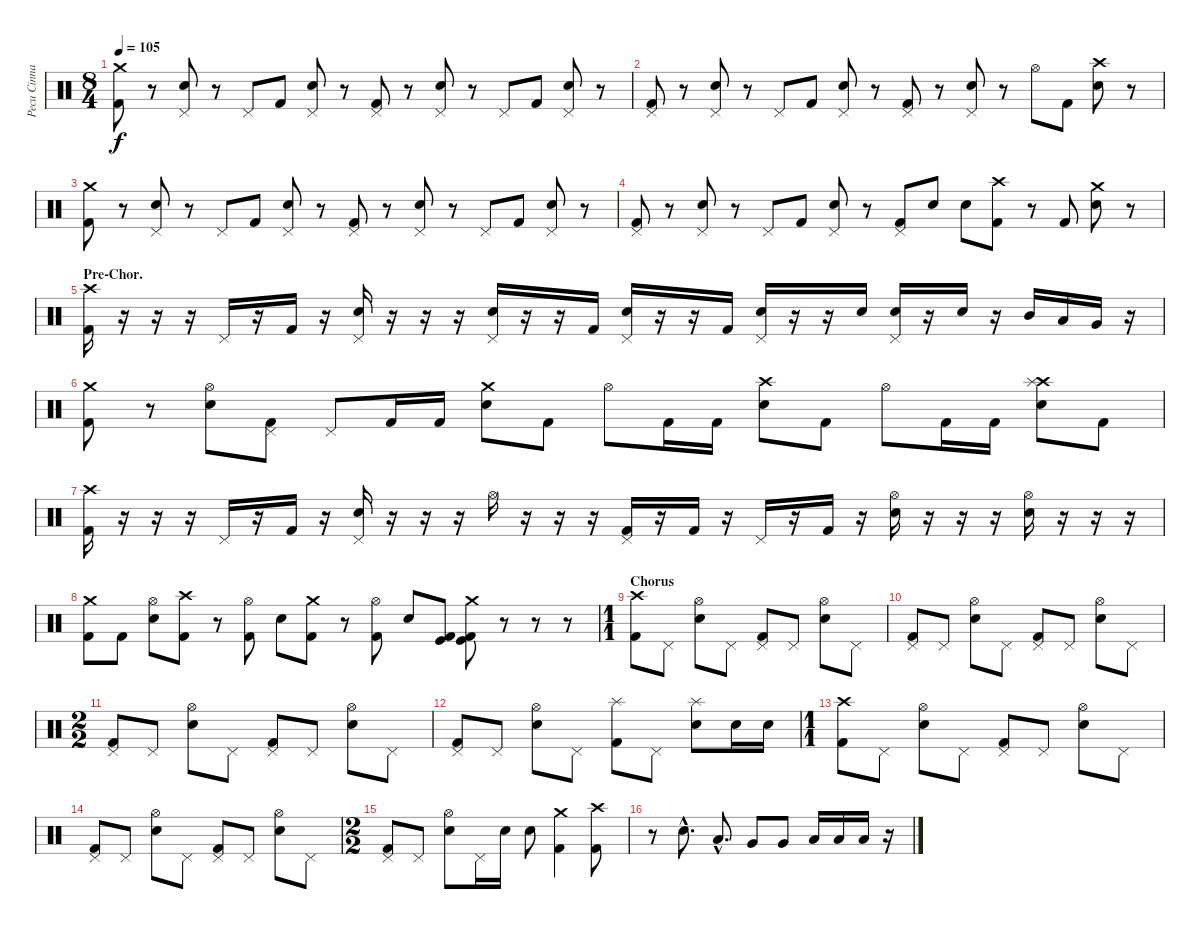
\track ("Pecu Cinnari" "Pecu Cinna") {instrument percussion}
\staff {score}
\articulation defaults
\ts (8 4)
\tempo 105
\clef neutral
\ks c
("Crash medium (hit)" "Kick (hit) 2").8{dy f} r.8 ("Pedal Hi-Hat (hit)" "Electric Snare (hit)").8 r.8 "Pedal Hi-Hat (hit)".8 "Kick (hit) 2".8 ("Pedal Hi-Hat (hit)" "Electric Snare (hit)").8 r.8 ("Pedal Hi-Hat (hit)" "Kick (hit) 2").8 r.8 ("Pedal Hi-Hat (hit)" "Electric Snare (hit)").8 r.8 "Pedal Hi-Hat (hit)".8 "Kick (hit) 2".8 ("Pedal Hi-Hat (hit)" "Electric Snare (hit)").8 r.8 |
("Pedal Hi-Hat (hit)" "Kick (hit) 2").8 r.8 ("Pedal Hi-Hat (hit)" "Electric Snare (hit)").8 r.8 "Pedal Hi-Hat (hit)".8 "Kick (hit) 2".8 ("Pedal Hi-Hat (hit)" "Electric Snare (hit)").8 r.8 ("Pedal Hi-Hat (hit)" "Kick (hit) 2").8 r.8 ("Pedal Hi-Hat (hit)" "Electric Snare (hit)").8 r.8 "Hi-Hat (open)".8 "Kick (hit) 2".8 ("Crash high (hit)" "Electric Snare (hit)").8 r.8 |
("Crash medium (hit)" "Kick (hit) 2").8 r.8 ("Pedal Hi-Hat (hit)" "Electric Snare (hit)").8 r.8 "Pedal Hi-Hat (hit)".8 "Kick (hit) 2".8 ("Pedal Hi-Hat (hit)" "Electric Snare (hit)").8 r.8 ("Pedal Hi-Hat (hit)" "Kick (hit) 2").8 r.8 ("Pedal Hi-Hat (hit)" "Electric Snare (hit)").8 r.8 "Pedal Hi-Hat (hit)".8 "Kick (hit) 2".8 ("Pedal Hi-Hat (hit)" "Electric Snare (hit)").8 r.8 |
("Pedal Hi-Hat (hit)" "Kick (hit) 2").8 r.8 ("Pedal Hi-Hat (hit)" "Electric Snare (hit)").8 r.8 "Pedal Hi-Hat (hit)".8 "Kick (hit) 2".8 ("Pedal Hi-Hat (hit)" "Electric Snare (hit)").8 r.8 ("Pedal Hi-Hat (hit)" "Kick (hit) 2").8 "Electric Snare (hit)".8 "Electric Snare (hit)".8 ("Crash high (hit)" "Kick (hit) 2").8 r.8 "Kick (hit) 2".8 ("Crash medium (hit)" "Electric Snare (hit)").8 r.8 |
\section ("" "Pre-Chor.")
("Crash high (hit)" "Kick (hit) 2").16 r.16 r.16 r.16 "Pedal Hi-Hat (hit)".16 r.16 "Kick (hit) 2".16 r.16 ("Pedal Hi-Hat (hit)" "Electric Snare (hit)").16 r.16 r.16 r.16 ("Pedal Hi-Hat (hit)" "Electric Snare (hit)").16 r.16 r.16 "Kick (hit) 2".16 ("Pedal Hi-Hat (hit)" "Electric Snare (hit)").16 r.16 r.16 "Kick (hit) 2".16 ("Pedal Hi-Hat (hit)" "Electric Snare (hit)").16 r.16 r.16 "Electric Snare (hit)".16 ("Pedal Hi-Hat (hit)" "Electric Snare (hit)").16 r.16 "Electric Snare (hit)".16 r.16 "Mid Tom (hit)".16 "Low Tom (hit)".16 "Very Low Tom (hit)".16 r.16 |
("Crash medium (hit)" "Kick (hit) 2").8 r.8 ("Hi-Hat (open)" "Electric Snare (hit)").8 ("Pedal Hi-Hat (hit)" "Kick (hit) 2").8 "Pedal Hi-Hat (hit)".8 "Kick (hit) 2".16 "Kick (hit) 2".16 ("Crash medium (hit)" "Electric Snare (hit)").8 "Kick (hit) 2".8 "Hi-Hat (open)".8 "Kick (hit) 2".16 "Kick (hit) 2".16 ("Crash high (hit)" "Electric Snare (hit)").8 "Kick (hit) 2".8 "Hi-Hat (open)".8 "Kick (hit) 2".16 "Kick (hit) 2".16 ("Crash high (hit)" "Splash (hit)" "Electric Snare (hit)").8 "Kick (hit) 2".8 |
\section ("" "")
("Crash high (hit)" "Kick (hit) 2").16 r.16 r.16 r.16 "Pedal Hi-Hat (hit)".16 r.16 "Kick (hit) 2".16 r.16 ("Pedal Hi-Hat (hit)" "Electric Snare (hit)").16 r.16 r.16 r.16 "Hi-Hat (open)".16 r.16 r.16 r.16 ("Pedal Hi-Hat (hit)" "Kick (hit) 2").16 r.16 "Kick (hit) 2".16 r.16 "Pedal Hi-Hat (hit)".16 r.16 "Kick (hit) 2".16 r.16 ("Hi-Hat (open)" "Electric Snare (hit)").16 r.16 r.16 r.16 ("Hi-Hat (open)" "Electric Snare (hit)").16 r.16 r.16 r.16 |
("Crash medium (hit)" "Kick (hit) 2").8 "Kick (hit) 2".8 ("Hi-Hat (open)" "Electric Snare (hit)").8 ("Crash high (hit)" "Kick (hit) 2").8 r.8 ("Hi-Hat (open)" "Kick (hit) 2").8 "Electric Snare (hit)".8 ("Crash medium (hit)" "Kick (hit) 2").8 r.8 ("Hi-Hat (open)" "Kick (hit) 2").8 "Electric Snare (hit)".8 ("Kick (hit)" "Kick (hit) 2").8 ("Crash medium (hit)" "Kick (hit)" "Kick (hit) 2").8 r.8 r.8 r.8 |
\ts (1 1)
\section ("" "Chorus")
("Crash high (hit)" "Kick (hit) 2").8 "Pedal Hi-Hat (hit)".8 ("Hi-Hat (open)" "Electric Snare (hit)").8 "Pedal Hi-Hat (hit)".8 ("Pedal Hi-Hat (hit)" "Kick (hit) 2").8 "Pedal Hi-Hat (hit)".8 ("Hi-Hat (open)" "Electric Snare (hit)").8 "Pedal Hi-Hat (hit)".8 |
("Pedal Hi-Hat (hit)" "Kick (hit) 2").8 "Pedal Hi-Hat (hit)".8 ("Hi-Hat (open)" "Electric Snare (hit)").8 "Pedal Hi-Hat (hit)".8 ("Pedal Hi-Hat (hit)" "Kick (hit) 2").8 "Pedal Hi-Hat (hit)".8 ("Hi-Hat (open)" "Electric Snare (hit)").8 "Pedal Hi-Hat (hit)".8 |
\ts (2 2)
("Pedal Hi-Hat (hit)" "Kick (hit) 2").8 "Pedal Hi-Hat (hit)".8 ("Hi-Hat (open)" "Electric Snare (hit)").8 "Pedal Hi-Hat (hit)".8 ("Pedal Hi-Hat (hit)" "Kick (hit) 2").8 "Pedal Hi-Hat (hit)".8 ("Hi-Hat (open)" "Electric Snare (hit)").8 "Pedal Hi-Hat (hit)".8 |
("Pedal Hi-Hat (hit)" "Kick (hit) 2").8 "Pedal Hi-Hat (hit)".8 ("Hi-Hat (open)" "Electric Snare (hit)").8 "Pedal Hi-Hat (hit)".8 ("Splash (hit)" "Kick (hit) 2").8 "Pedal Hi-Hat (hit)".8 ("Splash (hit)" "Electric Snare (hit)").8 "Electric Snare (hit)".16 "Electric Snare (hit)".16 |
\ts (1 1)
("Crash high (hit)" "Kick (hit) 2").8 "Pedal Hi-Hat (hit)".8 ("Hi-Hat (open)" "Electric Snare (hit)").8 "Pedal Hi-Hat (hit)".8 ("Pedal Hi-Hat (hit)" "Kick (hit) 2").8 "Pedal Hi-Hat (hit)".8 ("Hi-Hat (open)" "Electric Snare (hit)").8 "Pedal Hi-Hat (hit)".8 |
("Pedal Hi-Hat (hit)" "Kick (hit) 2").8 "Pedal Hi-Hat (hit)".8 ("Hi-Hat (open)" "Electric Snare (hit)").8 "Pedal Hi-Hat (hit)".8 ("Pedal Hi-Hat (hit)" "Kick (hit) 2").8 "Pedal Hi-Hat (hit)".8 ("Hi-Hat (open)" "Electric Snare (hit)").8 "Pedal Hi-Hat (hit)".8 |
\ts (2 2)
("Pedal Hi-Hat (hit)" "Kick (hit) 2").8 "Pedal Hi-Hat (hit)".8 ("Hi-Hat (open)" "Electric Snare (hit)").8 "Pedal Hi-Hat (hit)".16 "Electric Snare (hit)".16 "Electric Snare (hit)".8 ("Crash medium (hit)" "Kick (hit) 2").4 ("Crash high (hit)" "Kick (hit) 2").8 |
r.8 "Electric Snare (hit)"{hac}.8{d} "Low Tom (hit)"{hac}.8{d} "Very Low Tom (hit)".8 "Very Low Tom (hit)".8 "Low Floor Tom (hit)".16 "Low Floor Tom (hit)".16 "Low Floor Tom (hit)".16 r.16
